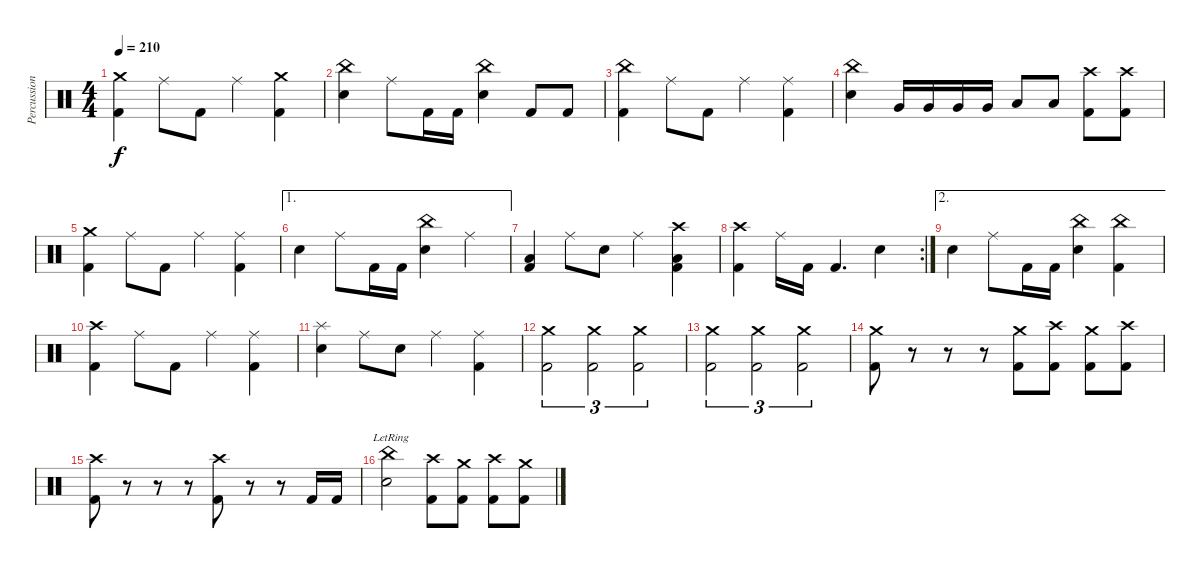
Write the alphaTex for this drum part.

\track ("Percussion" "Percussion") {instrument percussion}
\staff {score}
\articulation defaults
\ts (4 4)
\tempo 210
\clef neutral
\ks c
("Crash medium (hit)" "Kick (hit) 2").4{dy f} "Ride (middle)".8 "Kick (hit) 2".8 "Ride (middle)".4 ("Crash medium (hit)" "Kick (hit) 2").4 |
("China (hit)" "Electric Snare (hit)").4 "Ride (middle)".8 "Kick (hit) 2".16 "Kick (hit) 2".16 ("China (hit)" "Electric Snare (hit)").4 "Kick (hit) 2".8 "Kick (hit) 2".8 |
("China (hit)" "Kick (hit) 2").4 "Ride (middle)".8 "Kick (hit) 2".8 "Ride (middle)".4 ("Ride (middle)" "Kick (hit) 2").4 |
("China (hit)" "Electric Snare (hit)").4 "Very Low Tom (hit)".16 "Very Low Tom (hit)".16 "Very Low Tom (hit)".16 "Very Low Tom (hit)".16 "Low Floor Tom (hit)".8 "Low Floor Tom (hit)".8 ("Crash high (hit)" "Kick (hit) 2").8 ("Crash high (hit)" "Kick (hit) 2").8 |
("Crash medium (hit)" "Kick (hit) 2").4 "Ride (middle)".8 "Kick (hit) 2".8 "Ride (middle)".4 ("Ride (middle)" "Kick (hit) 2").4 |
\ae 1 "Electric Snare (hit)".4 "Ride (middle)".8 "Kick (hit) 2".16 "Kick (hit) 2".16
("China (hit)" "Electric Snare (hit)").4 "Ride (middle)".4 |
("Low Floor Tom (hit)" "Kick (hit) 2").4 "Ride (middle)".8 "Electric Snare (hit)".8 "Ride (middle)".4 ("Crash high (hit)" "Low Floor Tom (hit)" "Kick (hit) 2").4 |
\rc 2
("Crash high (hit)" "Kick (hit) 2").4 "Ride (middle)".16 "Kick (hit) 2".16 "Kick (hit) 2".4{d} "Electric Snare (hit)".4 |
\ae 2 "Electric Snare (hit)".4 "Ride (middle)".8 "Kick (hit) 2".16 "Kick (hit) 2".16
("China (hit)" "Electric Snare (hit)").4 ("China (hit)" "Kick (hit) 2").4 |
("Crash high (hit)" "Kick (hit) 2").4 "Ride (middle)".8 "Kick (hit) 2".8 "Ride (middle)".4 ("Ride (middle)" "Kick (hit) 2").4 |
("Splash (hit)" "Electric Snare (hit)").4 "Ride (middle)".8 "Electric Snare (hit)".8 "Ride (middle)".4 ("Ride (middle)" "Kick (hit) 2").4 |
("Crash medium (hit)" "Kick (hit) 2").2{tu (3 2)} ("Crash medium (hit)" "Kick (hit) 2").2{tu (3 2)} ("Crash medium (hit)" "Kick (hit) 2").2{tu (3 2)} |
("Crash medium (hit)" "Kick (hit) 2").2{tu (3 2)} ("Crash medium (hit)" "Kick (hit) 2").2{tu (3 2)} ("Crash medium (hit)" "Kick (hit) 2").2{tu (3 2)} |
("Crash medium (hit)" "Kick (hit) 2").8 r.8 r.8 r.8 ("Crash medium (hit)" "Kick (hit) 2").8 ("Crash high (hit)" "Kick (hit) 2").8 ("Crash medium (hit)" "Kick (hit) 2").8 ("Crash high (hit)" "Kick (hit) 2").8 |
("Crash high (hit)" "Kick (hit) 2").8 r.8 r.8 r.8 ("Crash high (hit)" "Kick (hit) 2").8 r.8 r.8 "Kick (hit) 2".16 "Kick (hit) 2".16 |
("China (hit)"{lr} "Electric Snare (hit)").2 ("Crash high (hit)" "Kick (hit) 2").8 ("Crash medium (hit)" "Kick (hit) 2").8 ("Crash high (hit)" "Kick (hit) 2").8 ("Crash medium (hit)" "Kick (hit) 2").8
